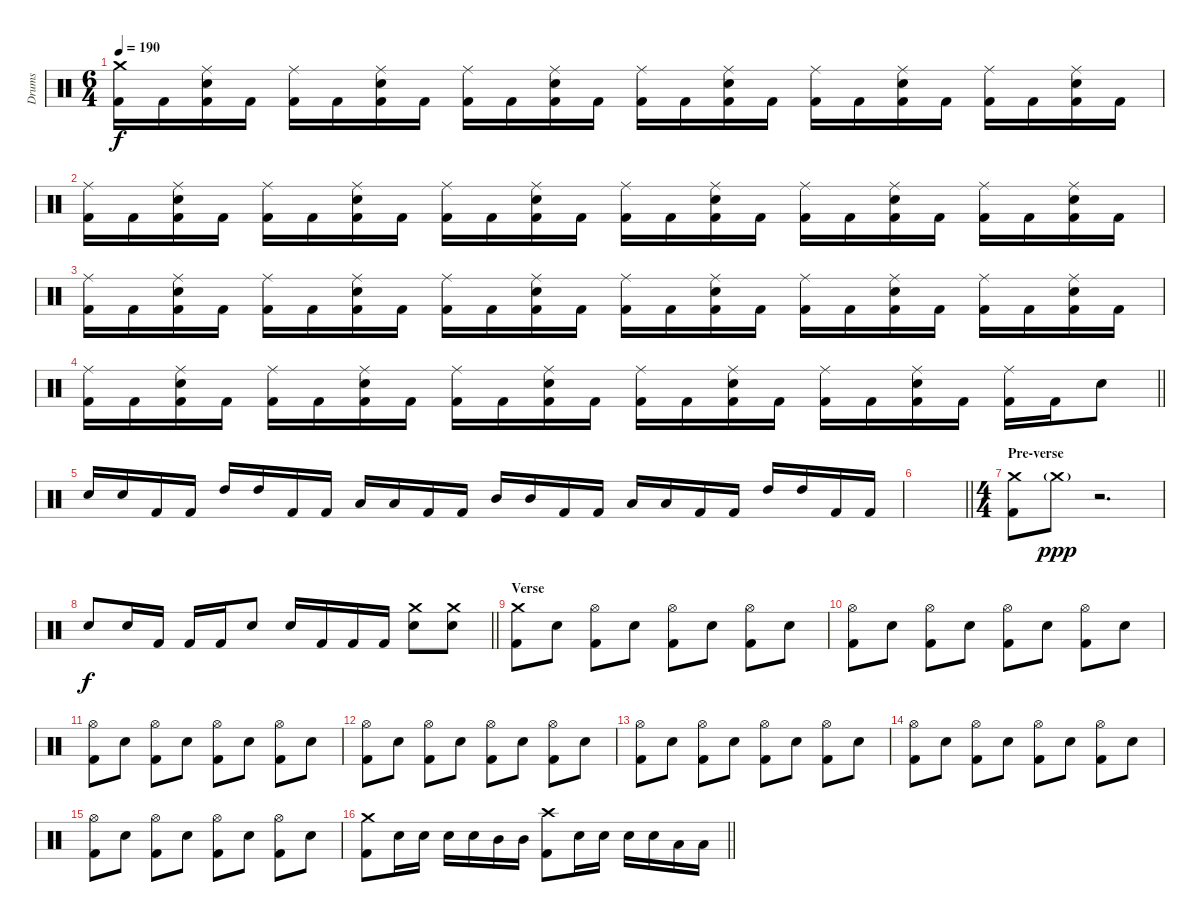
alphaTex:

\track ("Drums" "Drums") {instrument percussion}
\staff {score}
\articulation defaults
\ts (6 4)
\tempo 190
\clef neutral
\ks c
("Crash medium (hit)" "Kick (hit) 2").16{dy f} "Kick (hit) 2".16 ("Ride (middle)" "Electric Snare (hit)" "Kick (hit) 2").16 "Kick (hit) 2".16 ("Ride (middle)" "Kick (hit) 2").16 "Kick (hit) 2".16 ("Ride (middle)" "Electric Snare (hit)" "Kick (hit) 2").16 "Kick (hit) 2".16 ("Ride (middle)" "Kick (hit) 2").16 "Kick (hit) 2".16 ("Ride (middle)" "Electric Snare (hit)" "Kick (hit) 2").16 "Kick (hit) 2".16 ("Ride (middle)" "Kick (hit) 2").16 "Kick (hit) 2".16 ("Ride (middle)" "Electric Snare (hit)" "Kick (hit) 2").16 "Kick (hit) 2".16 ("Ride (middle)" "Kick (hit) 2").16 "Kick (hit) 2".16 ("Ride (middle)" "Electric Snare (hit)" "Kick (hit) 2").16 "Kick (hit) 2".16 ("Ride (middle)" "Kick (hit) 2").16 "Kick (hit) 2".16 ("Ride (middle)" "Electric Snare (hit)" "Kick (hit) 2").16 "Kick (hit) 2".16 |
("Ride (middle)" "Kick (hit) 2").16 "Kick (hit) 2".16 ("Ride (middle)" "Electric Snare (hit)" "Kick (hit) 2").16 "Kick (hit) 2".16 ("Ride (middle)" "Kick (hit) 2").16 "Kick (hit) 2".16 ("Ride (middle)" "Electric Snare (hit)" "Kick (hit) 2").16 "Kick (hit) 2".16 ("Ride (middle)" "Kick (hit) 2").16 "Kick (hit) 2".16 ("Ride (middle)" "Electric Snare (hit)" "Kick (hit) 2").16 "Kick (hit) 2".16 ("Ride (middle)" "Kick (hit) 2").16 "Kick (hit) 2".16 ("Ride (middle)" "Electric Snare (hit)" "Kick (hit) 2").16 "Kick (hit) 2".16 ("Ride (middle)" "Kick (hit) 2").16 "Kick (hit) 2".16 ("Ride (middle)" "Electric Snare (hit)" "Kick (hit) 2").16 "Kick (hit) 2".16 ("Ride (middle)" "Kick (hit) 2").16 "Kick (hit) 2".16 ("Ride (middle)" "Electric Snare (hit)" "Kick (hit) 2").16 "Kick (hit) 2".16 |
("Ride (middle)" "Kick (hit) 2").16 "Kick (hit) 2".16 ("Ride (middle)" "Electric Snare (hit)" "Kick (hit) 2").16 "Kick (hit) 2".16 ("Ride (middle)" "Kick (hit) 2").16 "Kick (hit) 2".16 ("Ride (middle)" "Electric Snare (hit)" "Kick (hit) 2").16 "Kick (hit) 2".16 ("Ride (middle)" "Kick (hit) 2").16 "Kick (hit) 2".16 ("Ride (middle)" "Electric Snare (hit)" "Kick (hit) 2").16 "Kick (hit) 2".16 ("Ride (middle)" "Kick (hit) 2").16 "Kick (hit) 2".16 ("Ride (middle)" "Electric Snare (hit)" "Kick (hit) 2").16 "Kick (hit) 2".16 ("Ride (middle)" "Kick (hit) 2").16 "Kick (hit) 2".16 ("Ride (middle)" "Electric Snare (hit)" "Kick (hit) 2").16 "Kick (hit) 2".16 ("Ride (middle)" "Kick (hit) 2").16 "Kick (hit) 2".16 ("Ride (middle)" "Electric Snare (hit)" "Kick (hit) 2").16 "Kick (hit) 2".16 |
\barLineRight lightlight
("Ride (middle)" "Kick (hit) 2").16 "Kick (hit) 2".16 ("Ride (middle)" "Electric Snare (hit)" "Kick (hit) 2").16 "Kick (hit) 2".16 ("Ride (middle)" "Kick (hit) 2").16 "Kick (hit) 2".16 ("Ride (middle)" "Electric Snare (hit)" "Kick (hit) 2").16 "Kick (hit) 2".16 ("Ride (middle)" "Kick (hit) 2").16 "Kick (hit) 2".16 ("Ride (middle)" "Electric Snare (hit)" "Kick (hit) 2").16 "Kick (hit) 2".16 ("Ride (middle)" "Kick (hit) 2").16 "Kick (hit) 2".16 ("Ride (middle)" "Electric Snare (hit)" "Kick (hit) 2").16 "Kick (hit) 2".16 ("Ride (middle)" "Kick (hit) 2").16 "Kick (hit) 2".16 ("Ride (middle)" "Electric Snare (hit)" "Kick (hit) 2").16 "Kick (hit) 2".16 ("Ride (middle)" "Kick (hit) 2").16 "Kick (hit) 2".16 "Electric Snare (hit)".8 |
"Electric Snare (hit)".16 "Electric Snare (hit)".16 "Kick (hit) 2".16 "Kick (hit) 2".16 "High Tom (hit)".16 "High Tom (hit)".16 "Kick (hit) 2".16 "Kick (hit) 2".16 "Low Tom (hit)".16 "Low Tom (hit)".16 "Kick (hit) 2".16 "Kick (hit) 2".16 "Mid Tom (hit)".16 "Mid Tom (hit)".16 "Kick (hit) 2".16 "Kick (hit) 2".16 "Low Tom (hit)".16 "Low Tom (hit)".16 "Kick (hit) 2".16 "Kick (hit) 2".16 "High Tom (hit)".16 "High Tom (hit)".16 "Kick (hit) 2".16 "Kick (hit) 2".16 |
\barLineRight lightlight
|
\ts (4 4)
\section ("" "Pre-verse")
("Crash medium (hit)" "Kick (hit) 2").8 "Crash medium (hit)"{g}.8{dy ppp} r.2{d} |
\barLineRight lightlight "Electric Snare (hit)".8{dy f} "Electric Snare (hit)".16 "Kick (hit) 2".16 "Kick (hit) 2".16 "Kick (hit) 2".16 "Electric Snare (hit)".8 "Electric Snare (hit)".16 "Kick (hit) 2".16 "Kick (hit) 2".16 "Kick (hit) 2".16
("Crash medium (hit)" "Electric Snare (hit)").8 ("Crash medium (hit)" "Electric Snare (hit)").8 |
\section ("" "Verse")
("Crash medium (hit)" "Kick (hit) 2").8{balance 8} "Electric Snare (hit)".8 ("Hi-Hat (open)" "Kick (hit) 2").8 "Electric Snare (hit)".8 ("Hi-Hat (open)" "Kick (hit) 2").8 "Electric Snare (hit)".8 ("Hi-Hat (open)" "Kick (hit) 2").8 "Electric Snare (hit)".8 |
("Hi-Hat (open)" "Kick (hit) 2").8 "Electric Snare (hit)".8 ("Hi-Hat (open)" "Kick (hit) 2").8 "Electric Snare (hit)".8 ("Hi-Hat (open)" "Kick (hit) 2").8 "Electric Snare (hit)".8 ("Hi-Hat (open)" "Kick (hit) 2").8 "Electric Snare (hit)".8 |
("Hi-Hat (open)" "Kick (hit) 2").8 "Electric Snare (hit)".8 ("Hi-Hat (open)" "Kick (hit) 2").8 "Electric Snare (hit)".8 ("Hi-Hat (open)" "Kick (hit) 2").8 "Electric Snare (hit)".8 ("Hi-Hat (open)" "Kick (hit) 2").8 "Electric Snare (hit)".8 |
("Hi-Hat (open)" "Kick (hit) 2").8 "Electric Snare (hit)".8 ("Hi-Hat (open)" "Kick (hit) 2").8 "Electric Snare (hit)".8 ("Hi-Hat (open)" "Kick (hit) 2").8 "Electric Snare (hit)".8 ("Hi-Hat (open)" "Kick (hit) 2").8 "Electric Snare (hit)".8 |
("Hi-Hat (open)" "Kick (hit) 2").8 "Electric Snare (hit)".8 ("Hi-Hat (open)" "Kick (hit) 2").8 "Electric Snare (hit)".8 ("Hi-Hat (open)" "Kick (hit) 2").8 "Electric Snare (hit)".8 ("Hi-Hat (open)" "Kick (hit) 2").8 "Electric Snare (hit)".8 |
("Hi-Hat (open)" "Kick (hit) 2").8 "Electric Snare (hit)".8 ("Hi-Hat (open)" "Kick (hit) 2").8 "Electric Snare (hit)".8 ("Hi-Hat (open)" "Kick (hit) 2").8 "Electric Snare (hit)".8 ("Hi-Hat (open)" "Kick (hit) 2").8 "Electric Snare (hit)".8 |
("Hi-Hat (open)" "Kick (hit) 2").8 "Electric Snare (hit)".8 ("Hi-Hat (open)" "Kick (hit) 2").8 "Electric Snare (hit)".8 ("Hi-Hat (open)" "Kick (hit) 2").8 "Electric Snare (hit)".8 ("Hi-Hat (open)" "Kick (hit) 2").8 "Electric Snare (hit)".8 |
\barLineRight lightlight
("Crash medium (hit)" "Kick (hit) 2").8 "Electric Snare (hit)".16 "Electric Snare (hit)".16 "Electric Snare (hit)".16 "Electric Snare (hit)".16 "Mid Tom (hit)".16 "Mid Tom (hit)".16 ("Crash high (hit)" "Kick (hit) 2").8 "Electric Snare (hit)".16 "Electric Snare (hit)".16 "Electric Snare (hit)".16 "Electric Snare (hit)".16 "Low Tom (hit)".16 "Low Tom (hit)".16
